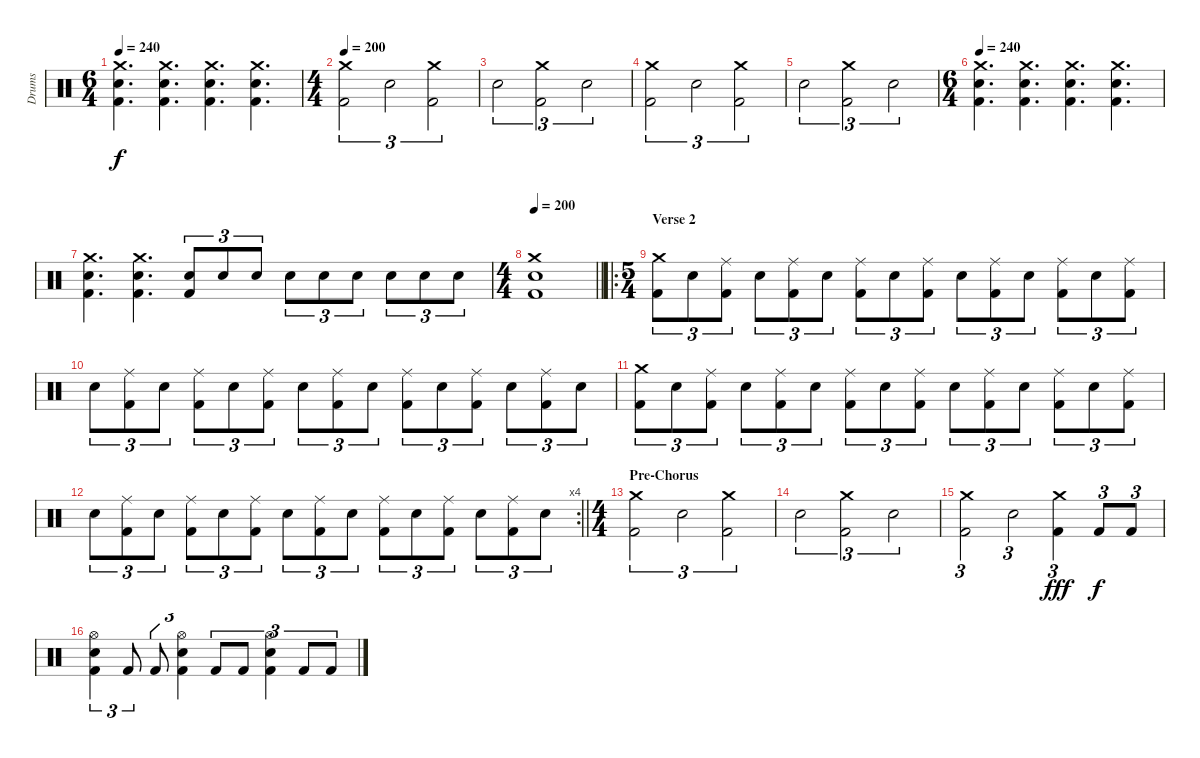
\track ("Drums" "Drums") {instrument percussion}
\staff {score}
\articulation defaults
\ts (6 4)
\tempo 240
\clef neutral
\ks c
("Crash medium (hit)" "Electric Snare (hit)" "Kick (hit) 2").4{d dy f} ("Crash medium (hit)" "Electric Snare (hit)" "Kick (hit) 2").4{d} ("Crash medium (hit)" "Electric Snare (hit)" "Kick (hit) 2").4{d} ("Crash medium (hit)" "Electric Snare (hit)" "Kick (hit) 2").4{d} |
\ts (4 4)
\tempo 200
("Crash medium (hit)" "Kick (hit) 2").2{tu (3 2)} "Electric Snare (hit)".2{tu (3 2)} ("Crash medium (hit)" "Kick (hit) 2").2{tu (3 2)} |
"Electric Snare (hit)".2{tu (3 2)} ("Crash medium (hit)" "Kick (hit) 2").2{tu (3 2)} "Electric Snare (hit)".2{tu (3 2)} |
("Crash medium (hit)" "Kick (hit) 2").2{tu (3 2)} "Electric Snare (hit)".2{tu (3 2)} ("Crash medium (hit)" "Kick (hit) 2").2{tu (3 2)} |
"Electric Snare (hit)".2{tu (3 2)} ("Crash medium (hit)" "Kick (hit) 2").2{tu (3 2)} "Electric Snare (hit)".2{tu (3 2)} |
\ts (6 4)
\tempo 240
("Crash medium (hit)" "Electric Snare (hit)" "Kick (hit) 2").4{d} ("Crash medium (hit)" "Electric Snare (hit)" "Kick (hit) 2").4{d} ("Crash medium (hit)" "Electric Snare (hit)" "Kick (hit) 2").4{d} ("Crash medium (hit)" "Electric Snare (hit)" "Kick (hit) 2").4{d} |
("Crash medium (hit)" "Electric Snare (hit)" "Kick (hit) 2").4{d} ("Crash medium (hit)" "Electric Snare (hit)" "Kick (hit) 2").4{d} ("Snare (hit) 2" "Kick (hit) 2").8{tu (3 2)} "Snare (hit) 2".8{tu (3 2)} "Snare (hit) 2".8{tu (3 2)} "Snare (hit) 2".8{tu (3 2)} "Snare (hit) 2".8{tu (3 2)} "Snare (hit) 2".8{tu (3 2)} "Snare (hit) 2".8{tu (3 2)} "Snare (hit) 2".8{tu (3 2)} "Snare (hit) 2".8{tu (3 2)} |
\ts (4 4)
\tempo 200
\barLineRight lightlight
("Crash medium (hit)" "Electric Snare (hit)" "Kick (hit) 2").1 |
\ro
\ts (5 4)
\section ("" "Verse 2")
("Crash medium (hit)" "Kick (hit) 2").8{tu (3 2)} "Electric Snare (hit)".8{tu (3 2)} ("Ride (middle)" "Kick (hit) 2").8{tu (3 2)} "Electric Snare (hit)".8{tu (3 2)} ("Ride (middle)" "Kick (hit) 2").8{tu (3 2)} "Electric Snare (hit)".8{tu (3 2)} ("Ride (middle)" "Kick (hit) 2").8{tu (3 2)} "Electric Snare (hit)".8{tu (3 2)} ("Ride (middle)" "Kick (hit) 2").8{tu (3 2)} "Electric Snare (hit)".8{tu (3 2)} ("Ride (middle)" "Kick (hit) 2").8{tu (3 2)} "Electric Snare (hit)".8{tu (3 2)} ("Ride (middle)" "Kick (hit) 2").8{tu (3 2)} "Electric Snare (hit)".8{tu (3 2)} ("Ride (middle)" "Kick (hit) 2").8{tu (3 2)} |
"Electric Snare (hit)".8{tu (3 2)} ("Ride (middle)" "Kick (hit) 2").8{tu (3 2)} "Electric Snare (hit)".8{tu (3 2)} ("Ride (middle)" "Kick (hit) 2").8{tu (3 2)} "Electric Snare (hit)".8{tu (3 2)} ("Ride (middle)" "Kick (hit) 2").8{tu (3 2)} "Electric Snare (hit)".8{tu (3 2)} ("Ride (middle)" "Kick (hit) 2").8{tu (3 2)} "Electric Snare (hit)".8{tu (3 2)} ("Ride (middle)" "Kick (hit) 2").8{tu (3 2)} "Electric Snare (hit)".8{tu (3 2)} ("Ride (middle)" "Kick (hit) 2").8{tu (3 2)} "Electric Snare (hit)".8{tu (3 2)} ("Ride (middle)" "Kick (hit) 2").8{tu (3 2)} "Electric Snare (hit)".8{tu (3 2)} |
("Crash medium (hit)" "Kick (hit) 2").8{tu (3 2)} "Electric Snare (hit)".8{tu (3 2)} ("Ride (middle)" "Kick (hit) 2").8{tu (3 2)} "Electric Snare (hit)".8{tu (3 2)} ("Ride (middle)" "Kick (hit) 2").8{tu (3 2)} "Electric Snare (hit)".8{tu (3 2)} ("Ride (middle)" "Kick (hit) 2").8{tu (3 2)} "Electric Snare (hit)".8{tu (3 2)} ("Ride (middle)" "Kick (hit) 2").8{tu (3 2)} "Electric Snare (hit)".8{tu (3 2)} ("Ride (middle)" "Kick (hit) 2").8{tu (3 2)} "Electric Snare (hit)".8{tu (3 2)} ("Ride (middle)" "Kick (hit) 2").8{tu (3 2)} "Electric Snare (hit)".8{tu (3 2)} ("Ride (middle)" "Kick (hit) 2").8{tu (3 2)} |
\rc 4
\barLineRight lightlight "Electric Snare (hit)".8{tu (3 2)}
("Ride (middle)" "Kick (hit) 2").8{tu (3 2)} "Electric Snare (hit)".8{tu (3 2)} ("Ride (middle)" "Kick (hit) 2").8{tu (3 2)} "Electric Snare (hit)".8{tu (3 2)} ("Ride (middle)" "Kick (hit) 2").8{tu (3 2)} "Electric Snare (hit)".8{tu (3 2)} ("Ride (middle)" "Kick (hit) 2").8{tu (3 2)} "Electric Snare (hit)".8{tu (3 2)} ("Ride (middle)" "Kick (hit) 2").8{tu (3 2)} "Electric Snare (hit)".8{tu (3 2)} ("Ride (middle)" "Kick (hit) 2").8{tu (3 2)} "Electric Snare (hit)".8{tu (3 2)} ("Ride (middle)" "Kick (hit) 2").8{tu (3 2)} "Electric Snare (hit)".8{tu (3 2)} |
\ts (4 4)
\section ("" "Pre-Chorus")
("Crash medium (hit)" "Kick (hit) 2").2{tu (3 2)} "Electric Snare (hit)".2{tu (3 2)} ("Crash medium (hit)" "Kick (hit) 2").2{tu (3 2)} |
"Electric Snare (hit)".2{tu (3 2)} ("Crash medium (hit)" "Kick (hit) 2").2{tu (3 2)} "Electric Snare (hit)".2{tu (3 2)} |
("Crash medium (hit)" "Kick (hit) 2").2{tu (3 2)} "Electric Snare (hit)".2{tu (3 2)} ("Crash medium (hit)" "Kick (hit) 2").4{tu (3 2) dy fff} "Kick (hit) 2".8{tu (3 2) dy f} "Kick (hit) 2".8{tu (3 2)} |
("Hi-Hat (open)" "Snare (hit) 2" "Kick (hit) 2").4{tu (3 2)} "Kick (hit) 2".8{tu (3 2)} "Kick (hit) 2".8{tu (3 2)} ("Hi-Hat (open)" "Snare (hit) 2" "Kick (hit) 2").4{tu (3 2)} "Kick (hit) 2".8{tu (3 2)} "Kick (hit) 2".8{tu (3 2)} ("Hi-Hat (open)" "Snare (hit) 2" "Kick (hit) 2").4{tu (3 2)} "Kick (hit) 2".8{tu (3 2)} "Kick (hit) 2".8{tu (3 2)}
